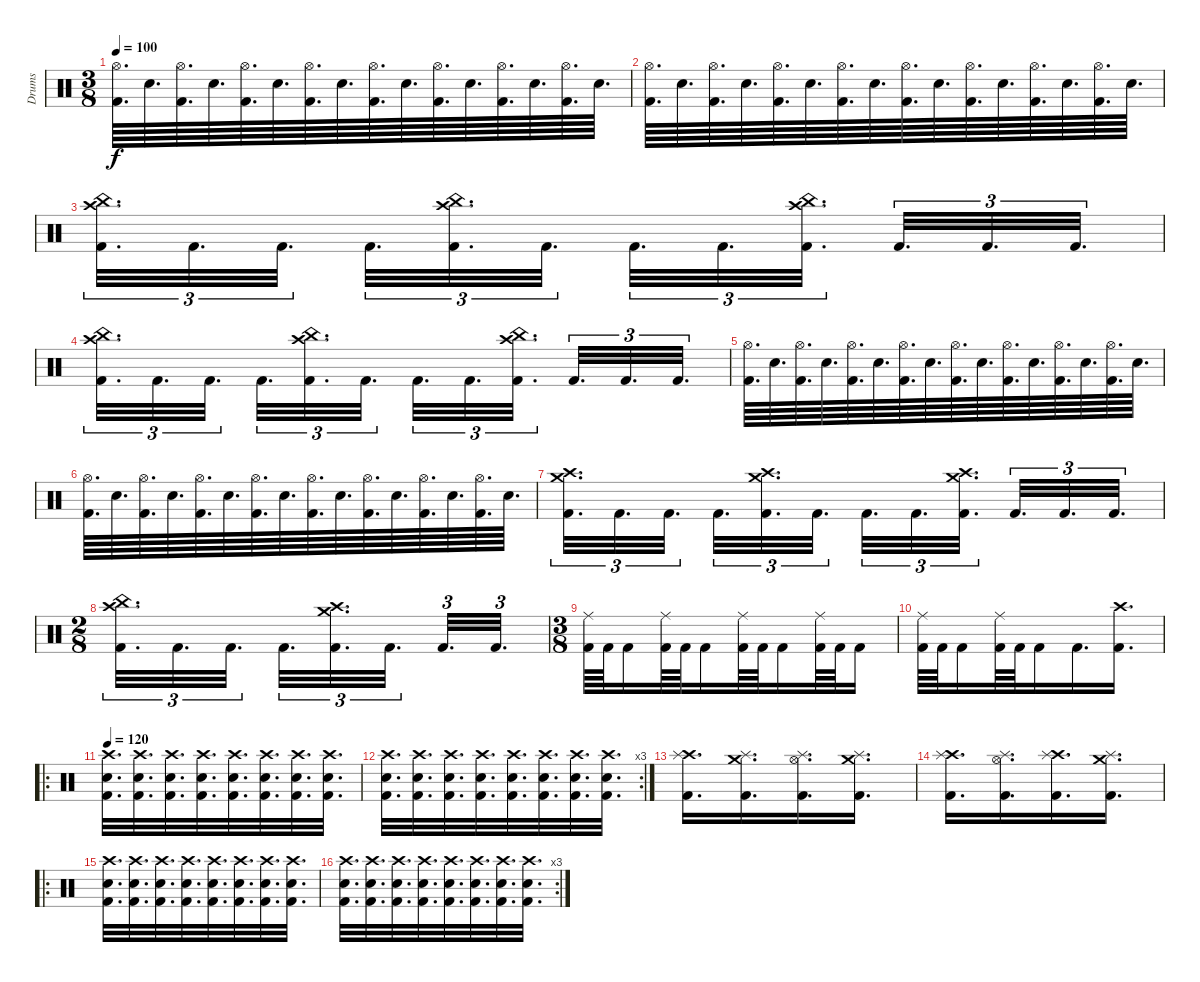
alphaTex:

\track ("Drums" "Drums") {instrument percussion}
\staff {score}
\articulation defaults
\ts (3 8)
\tempo 100
\clef neutral
\ks c
("Hi-Hat (open)" "Kick (hit) 2").64{d dy f} "Electric Snare (hit)".64{d} ("Hi-Hat (open)" "Kick (hit) 2").64{d} "Electric Snare (hit)".64{d} ("Hi-Hat (open)" "Kick (hit) 2").64{d} "Electric Snare (hit)".64{d} ("Hi-Hat (open)" "Kick (hit) 2").64{d} "Electric Snare (hit)".64{d} ("Hi-Hat (open)" "Kick (hit) 2").64{d} "Electric Snare (hit)".64{d} ("Hi-Hat (open)" "Kick (hit) 2").64{d} "Electric Snare (hit)".64{d} ("Hi-Hat (open)" "Kick (hit) 2").64{d} "Electric Snare (hit)".64{d} ("Hi-Hat (open)" "Kick (hit) 2").64{d} "Electric Snare (hit)".64{d} |
("Hi-Hat (open)" "Kick (hit) 2").64{d} "Electric Snare (hit)".64{d} ("Hi-Hat (open)" "Kick (hit) 2").64{d} "Electric Snare (hit)".64{d} ("Hi-Hat (open)" "Kick (hit) 2").64{d} "Electric Snare (hit)".64{d} ("Hi-Hat (open)" "Kick (hit) 2").64{d} "Electric Snare (hit)".64{d} ("Hi-Hat (open)" "Kick (hit) 2").64{d} "Electric Snare (hit)".64{d} ("Hi-Hat (open)" "Kick (hit) 2").64{d} "Electric Snare (hit)".64{d} ("Hi-Hat (open)" "Kick (hit) 2").64{d} "Electric Snare (hit)".64{d} ("Hi-Hat (open)" "Kick (hit) 2").64{d} "Electric Snare (hit)".64{d} |
("China (hit)" "Crash high (hit)" "Kick (hit) 2").32{d tu (3 2)} "Kick (hit) 2".32{d tu (3 2)} "Kick (hit) 2".32{d tu (3 2)} "Kick (hit) 2".32{d tu (3 2)} ("China (hit)" "Crash high (hit)" "Kick (hit) 2").32{d tu (3 2)} "Kick (hit) 2".32{d tu (3 2)} "Kick (hit) 2".32{d tu (3 2)} "Kick (hit) 2".32{d tu (3 2)} ("China (hit)" "Crash high (hit)" "Kick (hit) 2").32{d tu (3 2)} "Kick (hit) 2".32{d tu (3 2)} "Kick (hit) 2".32{d tu (3 2)} "Kick (hit) 2".32{d tu (3 2)} |
("China (hit)" "Crash high (hit)" "Kick (hit) 2").32{d tu (3 2)} "Kick (hit) 2".32{d tu (3 2)} "Kick (hit) 2".32{d tu (3 2)} "Kick (hit) 2".32{d tu (3 2)} ("China (hit)" "Crash high (hit)" "Kick (hit) 2").32{d tu (3 2)} "Kick (hit) 2".32{d tu (3 2)} "Kick (hit) 2".32{d tu (3 2)} "Kick (hit) 2".32{d tu (3 2)} ("China (hit)" "Crash high (hit)" "Kick (hit) 2").32{d tu (3 2)} "Kick (hit) 2".32{d tu (3 2)} "Kick (hit) 2".32{d tu (3 2)} "Kick (hit) 2".32{d tu (3 2)} |
("Hi-Hat (open)" "Kick (hit) 2").64{d} "Electric Snare (hit)".64{d} ("Hi-Hat (open)" "Kick (hit) 2").64{d} "Electric Snare (hit)".64{d} ("Hi-Hat (open)" "Kick (hit) 2").64{d} "Electric Snare (hit)".64{d} ("Hi-Hat (open)" "Kick (hit) 2").64{d} "Electric Snare (hit)".64{d} ("Hi-Hat (open)" "Kick (hit) 2").64{d} "Electric Snare (hit)".64{d} ("Hi-Hat (open)" "Kick (hit) 2").64{d} "Electric Snare (hit)".64{d} ("Hi-Hat (open)" "Kick (hit) 2").64{d} "Electric Snare (hit)".64{d} ("Hi-Hat (open)" "Kick (hit) 2").64{d} "Electric Snare (hit)".64{d} |
("Hi-Hat (open)" "Kick (hit) 2").64{d} "Electric Snare (hit)".64{d} ("Hi-Hat (open)" "Kick (hit) 2").64{d} "Electric Snare (hit)".64{d} ("Hi-Hat (open)" "Kick (hit) 2").64{d} "Electric Snare (hit)".64{d} ("Hi-Hat (open)" "Kick (hit) 2").64{d} "Electric Snare (hit)".64{d} ("Hi-Hat (open)" "Kick (hit) 2").64{d} "Electric Snare (hit)".64{d} ("Hi-Hat (open)" "Kick (hit) 2").64{d} "Electric Snare (hit)".64{d} ("Hi-Hat (open)" "Kick (hit) 2").64{d} "Electric Snare (hit)".64{d} ("Hi-Hat (open)" "Kick (hit) 2").64{d} "Electric Snare (hit)".64{d} |
("Crash medium (hit)" "Crash high (hit)" "Kick (hit) 2").32{d tu (3 2)} "Kick (hit) 2".32{d tu (3 2)} "Kick (hit) 2".32{d tu (3 2)} "Kick (hit) 2".32{d tu (3 2)} ("Crash medium (hit)" "Crash high (hit)" "Kick (hit) 2").32{d tu (3 2)} "Kick (hit) 2".32{d tu (3 2)} "Kick (hit) 2".32{d tu (3 2)} "Kick (hit) 2".32{d tu (3 2)} ("Crash medium (hit)" "Crash high (hit)" "Kick (hit) 2").32{d tu (3 2)} "Kick (hit) 2".32{d tu (3 2)} "Kick (hit) 2".32{d tu (3 2)} "Kick (hit) 2".32{d tu (3 2)} |
\ts (2 8)
("China (hit)" "Crash high (hit)" "Kick (hit) 2").32{d tu (3 2)} "Kick (hit) 2".32{d tu (3 2)} "Kick (hit) 2".32{d tu (3 2)} "Kick (hit) 2".32{d tu (3 2)} ("Crash medium (hit)" "Crash high (hit)" "Kick (hit) 2").32{d tu (3 2)} "Kick (hit) 2".32{d tu (3 2)} "Kick (hit) 2".32{d tu (3 2)} "Kick (hit) 2".32{d tu (3 2)} |
\ts (3 8)
("Ride (middle)" "Kick (hit) 2").64 "Kick (hit) 2".64 "Kick (hit) 2".16 ("Ride (middle)" "Kick (hit) 2").64 "Kick (hit) 2".64 "Kick (hit) 2".16 ("Ride (middle)" "Kick (hit) 2").64 "Kick (hit) 2".64 "Kick (hit) 2".16 ("Ride (middle)" "Kick (hit) 2").64 "Kick (hit) 2".64 "Kick (hit) 2".16 |
("Ride (middle)" "Kick (hit) 2").64 "Kick (hit) 2".64 "Kick (hit) 2".16 ("Ride (middle)" "Kick (hit) 2").64 "Kick (hit) 2".64 "Kick (hit) 2".16 "Kick (hit) 2".16{d} ("Crash high (hit)" "Kick (hit) 2").16{d} |
\ro
\tempo 120
("Crash high (hit)" "Electric Snare (hit)" "Kick (hit) 2").32{d} ("Crash high (hit)" "Electric Snare (hit)" "Kick (hit) 2").32{d} ("Crash high (hit)" "Electric Snare (hit)" "Kick (hit) 2").32{d} ("Crash high (hit)" "Electric Snare (hit)" "Kick (hit) 2").32{d} ("Crash high (hit)" "Electric Snare (hit)" "Kick (hit) 2").32{d} ("Crash high (hit)" "Electric Snare (hit)" "Kick (hit) 2").32{d} ("Crash high (hit)" "Electric Snare (hit)" "Kick (hit) 2").32{d} ("Crash high (hit)" "Electric Snare (hit)" "Kick (hit) 2").32{d} |
\rc 3
("Crash high (hit)" "Electric Snare (hit)" "Kick (hit) 2").32{d} ("Crash high (hit)" "Electric Snare (hit)" "Kick (hit) 2").32{d} ("Crash high (hit)" "Electric Snare (hit)" "Kick (hit) 2").32{d} ("Crash high (hit)" "Electric Snare (hit)" "Kick (hit) 2").32{d} ("Crash high (hit)" "Electric Snare (hit)" "Kick (hit) 2").32{d} ("Crash high (hit)" "Electric Snare (hit)" "Kick (hit) 2").32{d} ("Crash high (hit)" "Electric Snare (hit)" "Kick (hit) 2").32{d} ("Crash high (hit)" "Electric Snare (hit)" "Kick (hit) 2").32{d} |
("Crash high (hit)" "Splash (hit)" "Kick (hit) 2").16{d} ("Crash medium (hit)" "Splash (hit)" "Kick (hit) 2").16{d} ("Hi-Hat (open)" "Splash (hit)" "Kick (hit) 2").16{d} ("Splash (hit)" "Crash medium (hit)" "Kick (hit) 2").16{d} |
("Crash high (hit)" "Splash (hit)" "Kick (hit) 2").16{d} ("Hi-Hat (open)" "Splash (hit)" "Kick (hit) 2").16{d} ("Crash high (hit)" "Splash (hit)" "Kick (hit) 2").16{d} ("Crash medium (hit)" "Splash (hit)" "Kick (hit) 2").16{d} |
\ro
("Crash high (hit)" "Electric Snare (hit)" "Kick (hit) 2").32{d} ("Crash high (hit)" "Electric Snare (hit)" "Kick (hit) 2").32{d} ("Crash high (hit)" "Electric Snare (hit)" "Kick (hit) 2").32{d} ("Crash high (hit)" "Electric Snare (hit)" "Kick (hit) 2").32{d} ("Crash high (hit)" "Electric Snare (hit)" "Kick (hit) 2").32{d} ("Crash high (hit)" "Electric Snare (hit)" "Kick (hit) 2").32{d} ("Crash high (hit)" "Electric Snare (hit)" "Kick (hit) 2").32{d} ("Crash high (hit)" "Electric Snare (hit)" "Kick (hit) 2").32{d} |
\rc 3
("Crash high (hit)" "Electric Snare (hit)" "Kick (hit) 2").32{d} ("Crash high (hit)" "Electric Snare (hit)" "Kick (hit) 2").32{d} ("Crash high (hit)" "Electric Snare (hit)" "Kick (hit) 2").32{d} ("Crash high (hit)" "Electric Snare (hit)" "Kick (hit) 2").32{d} ("Crash high (hit)" "Electric Snare (hit)" "Kick (hit) 2").32{d} ("Crash high (hit)" "Electric Snare (hit)" "Kick (hit) 2").32{d} ("Crash high (hit)" "Electric Snare (hit)" "Kick (hit) 2").32{d} ("Crash high (hit)" "Electric Snare (hit)" "Kick (hit) 2").32{d}
